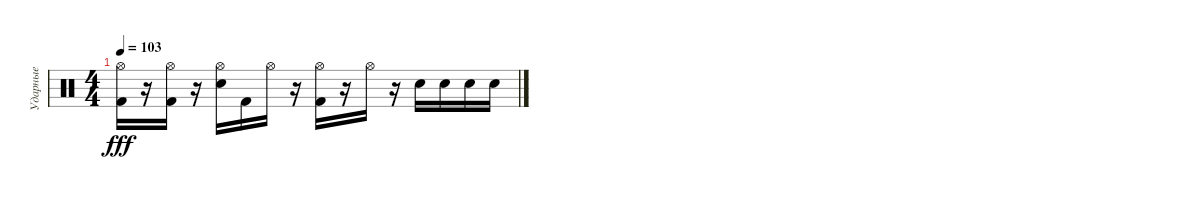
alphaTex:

\track ("Ударные" "Ударные") {instrument percussion}
\staff {score}
\articulation defaults
\ts (4 4)
\tempo 103
\clef neutral
\ks c
("Hi-Hat (open)" "Kick (hit) 2").16{dy fff} r.16 ("Hi-Hat (open)" "Kick (hit) 2").16 r.16 ("Hi-Hat (open)" "Electric Snare (hit)").16 "Kick (hit) 2".16 "Hi-Hat (open)".16 r.16 ("Hi-Hat (open)" "Kick (hit) 2").16 r.16 "Hi-Hat (open)".16 r.16 "Electric Snare (hit)".16 "Electric Snare (hit)".16 "Electric Snare (hit)".16 "Electric Snare (hit)".16
